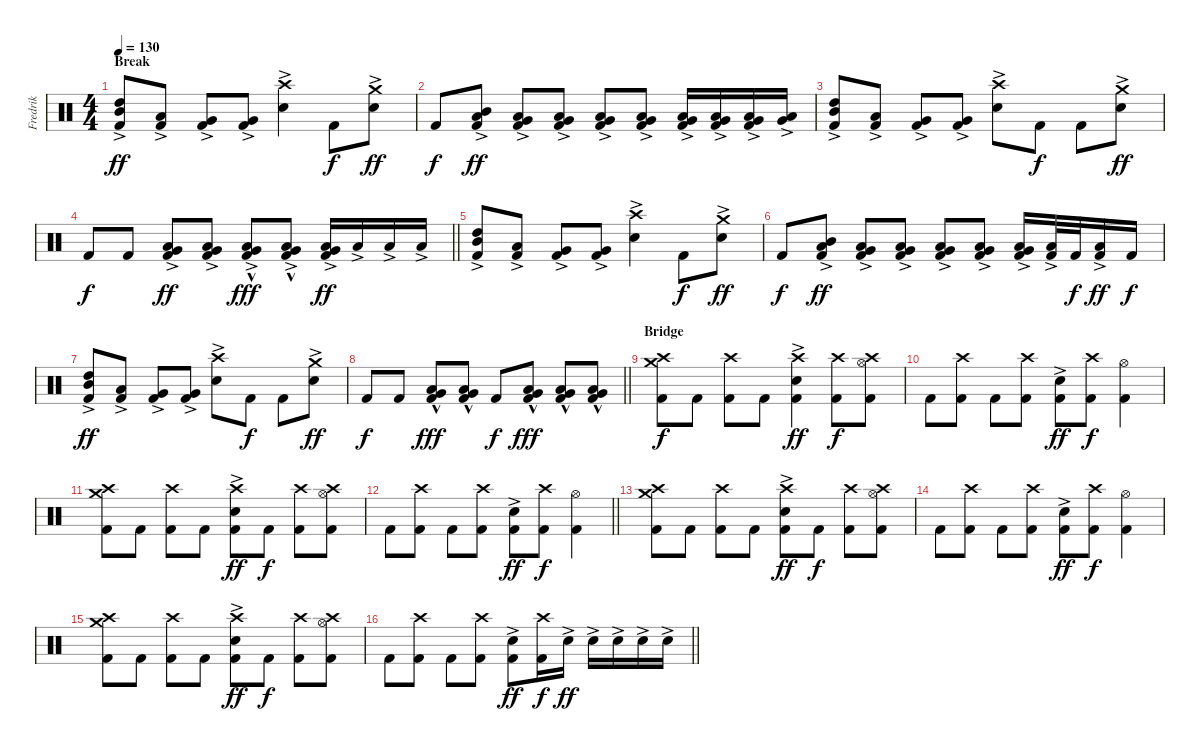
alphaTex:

\track ("Fredrik" "Fredrik") {instrument percussion}
\staff {score}
\articulation defaults
\ts (4 4)
\section ("" "Break")
\tempo 130
\clef neutral
\ks c
("Kick (hit) 2" "High Tom (hit)" "Mid Tom (hit)"{ac}).8{dy ff} ("Kick (hit) 2" "Low Tom (hit)"{ac}).8 ("Kick (hit) 2" "Very Low Tom (hit)"{ac}).8 ("Kick (hit) 2" "Very Low Tom (hit)"{ac}).8 ("Snare (hit) 2"{ac} "Crash high (hit)").4 "Kick (hit) 2".8{dy f} ("Snare (hit) 2"{ac} "Crash medium (hit)").8{dy ff} |
"Kick (hit) 2".8{dy f} ("Kick (hit) 2" "Mid Tom (hit)" "Low Tom (hit)"{ac}).8{dy ff} ("Kick (hit) 2" "Low Tom (hit)" "Very Low Tom (hit)"{ac}).8 ("Kick (hit) 2" "Very Low Tom (hit)" "Low Floor Tom (hit)"{ac}).8 ("Kick (hit) 2" "Very Low Tom (hit)" "Low Floor Tom (hit)"{ac}).8 ("Kick (hit) 2" "Very Low Tom (hit)" "Low Floor Tom (hit)"{ac}).8 ("Kick (hit) 2" "Very Low Tom (hit)" "Low Floor Tom (hit)"{ac}).16 ("Kick (hit) 2" "Very Low Tom (hit)" "Low Floor Tom (hit)"{ac}).16 ("Kick (hit) 2" "Very Low Tom (hit)" "Low Floor Tom (hit)"{ac}).16 ("Very Low Tom (hit)" "Low Floor Tom (hit)"{ac}).16 |
("Kick (hit) 2" "High Tom (hit)" "Mid Tom (hit)"{ac}).8 ("Kick (hit) 2" "Low Tom (hit)"{ac}).8 ("Kick (hit) 2" "Very Low Tom (hit)"{ac}).8 ("Kick (hit) 2" "Very Low Tom (hit)"{ac}).8 ("Snare (hit) 2"{ac} "Crash high (hit)").8 "Kick (hit) 2".8{dy f} "Kick (hit) 2".8 ("Snare (hit) 2"{ac} "Crash medium (hit)").8{dy ff} |
\barLineRight lightlight "Kick (hit) 2".8{dy f} "Kick (hit) 2".8
("Kick (hit) 2" "Low Tom (hit)" "Very Low Tom (hit)"{ac}).8{dy ff} ("Kick (hit) 2" "Very Low Tom (hit)" "Low Floor Tom (hit)"{ac}).8 ("Kick (hit) 2" "Very Low Tom (hit)"{ac} "Low Floor Tom (hit)"{hac}).8{dy fff} ("Kick (hit) 2" "Very Low Tom (hit)"{ac} "Low Floor Tom (hit)"{hac}).8 ("Kick (hit) 2" "Very Low Tom (hit)"{ac} "Low Floor Tom (hit)"{ac}).16{dy ff} "Low Floor Tom (hit)"{ac}.16 "Low Floor Tom (hit)"{ac}.16 "Low Floor Tom (hit)"{ac}.16 |
\section ("" "")
("Kick (hit) 2" "High Tom (hit)" "Mid Tom (hit)"{ac}).8 ("Kick (hit) 2" "Low Tom (hit)"{ac}).8 ("Kick (hit) 2" "Very Low Tom (hit)"{ac}).8 ("Kick (hit) 2" "Very Low Tom (hit)"{ac}).8 ("Snare (hit) 2"{ac} "Crash high (hit)").4 "Kick (hit) 2".8{dy f} ("Snare (hit) 2"{ac} "Crash medium (hit)").8{dy ff} |
"Kick (hit) 2".8{dy f} ("Kick (hit) 2" "Mid Tom (hit)" "Low Tom (hit)"{ac}).8{dy ff} ("Kick (hit) 2" "Low Tom (hit)" "Very Low Tom (hit)"{ac}).8 ("Kick (hit) 2" "Very Low Tom (hit)" "Low Floor Tom (hit)"{ac}).8 ("Kick (hit) 2" "Very Low Tom (hit)" "Low Floor Tom (hit)"{ac}).8 ("Kick (hit) 2" "Very Low Tom (hit)" "Low Floor Tom (hit)"{ac}).8 ("Kick (hit) 2" "Very Low Tom (hit)" "Low Floor Tom (hit)"{ac}).16 ("Kick (hit) 2" "Low Floor Tom (hit)"{ac}).32 "Kick (hit) 2".32{dy f} ("Kick (hit) 2" "Low Floor Tom (hit)"{ac}).16{dy ff} "Kick (hit) 2".16{dy f} |
("Kick (hit) 2" "High Tom (hit)" "Mid Tom (hit)"{ac}).8{dy ff} ("Kick (hit) 2" "Low Tom (hit)"{ac}).8 ("Kick (hit) 2" "Very Low Tom (hit)"{ac}).8 ("Kick (hit) 2" "Very Low Tom (hit)"{ac}).8 ("Snare (hit) 2"{ac} "Crash high (hit)").8 "Kick (hit) 2".8{dy f} "Kick (hit) 2".8 ("Snare (hit) 2"{ac} "Crash medium (hit)").8{dy ff} |
\barLineRight lightlight "Kick (hit) 2".8{dy f} "Kick (hit) 2".8
("Kick (hit) 2" "Low Tom (hit)"{hac} "Very Low Tom (hit)"{hac}).8{dy fff} ("Kick (hit) 2" "Low Tom (hit)"{hac} "Very Low Tom (hit)"{hac}).8 "Kick (hit) 2".8{dy f} ("Kick (hit) 2" "Very Low Tom (hit)"{hac} "Low Floor Tom (hit)"{hac}).8{dy fff} ("Kick (hit) 2" "Very Low Tom (hit)"{hac} "Low Floor Tom (hit)"{hac}).8 ("Kick (hit) 2" "Very Low Tom (hit)"{hac} "Low Floor Tom (hit)"{hac}).8 |
\section ("" "Bridge")
("Kick (hit) 2" "Crash medium (hit)" "Crash high (hit)").8{dy f} "Kick (hit) 2".8 ("Kick (hit) 2" "Crash high (hit)").8 "Kick (hit) 2".8 ("Kick (hit) 2" "Snare (hit) 2"{ac} "Crash high (hit)").4{dy ff} ("Kick (hit) 2" "Crash high (hit)").8{dy f} ("Kick (hit) 2" "Hi-Hat (open)" "Crash high (hit)").8 |
"Kick (hit) 2".8 ("Kick (hit) 2" "Crash high (hit)").8 "Kick (hit) 2".8 ("Kick (hit) 2" "Crash high (hit)").8 ("Kick (hit) 2" "Snare (hit) 2"{ac}).8{dy ff} ("Kick (hit) 2" "Crash high (hit)").8{dy f} ("Kick (hit) 2" "Hi-Hat (open)").4 |
("Kick (hit) 2" "Crash medium (hit)" "Crash high (hit)").8 "Kick (hit) 2".8 ("Kick (hit) 2" "Crash high (hit)").8 "Kick (hit) 2".8 ("Kick (hit) 2" "Snare (hit) 2"{ac} "Crash high (hit)").8{dy ff} "Kick (hit) 2".8{dy f} ("Kick (hit) 2" "Crash high (hit)").8 ("Kick (hit) 2" "Hi-Hat (open)" "Crash high (hit)").8 |
\barLineRight lightlight "Kick (hit) 2".8
("Kick (hit) 2" "Crash high (hit)").8 "Kick (hit) 2".8 ("Kick (hit) 2" "Crash high (hit)").8 ("Kick (hit) 2" "Snare (hit) 2"{ac}).8{dy ff} ("Kick (hit) 2" "Crash high (hit)").8{dy f} ("Kick (hit) 2" "Hi-Hat (open)").4 |
\section ("" "")
("Kick (hit) 2" "Crash medium (hit)" "Crash high (hit)").8 "Kick (hit) 2".8 ("Kick (hit) 2" "Crash high (hit)").8 "Kick (hit) 2".8 ("Kick (hit) 2" "Snare (hit) 2"{ac} "Crash high (hit)").8{dy ff} "Kick (hit) 2".8{dy f} ("Kick (hit) 2" "Crash high (hit)").8 ("Kick (hit) 2" "Hi-Hat (open)" "Crash high (hit)").8 |
"Kick (hit) 2".8 ("Kick (hit) 2" "Crash high (hit)").8 "Kick (hit) 2".8 ("Kick (hit) 2" "Crash high (hit)").8 ("Kick (hit) 2" "Snare (hit) 2"{ac}).8{dy ff} ("Kick (hit) 2" "Crash high (hit)").8{dy f} ("Kick (hit) 2" "Hi-Hat (open)").4 |
("Kick (hit) 2" "Crash medium (hit)" "Crash high (hit)").8 "Kick (hit) 2".8 ("Kick (hit) 2" "Crash high (hit)").8 "Kick (hit) 2".8 ("Kick (hit) 2" "Snare (hit) 2"{ac} "Crash high (hit)").8{dy ff} "Kick (hit) 2".8{dy f} ("Kick (hit) 2" "Crash high (hit)").8 ("Kick (hit) 2" "Hi-Hat (open)" "Crash high (hit)").8 |
\barLineRight lightlight "Kick (hit) 2".8
("Kick (hit) 2" "Crash high (hit)").8 "Kick (hit) 2".8 ("Kick (hit) 2" "Crash high (hit)").8 ("Kick (hit) 2" "Snare (hit) 2"{ac}).8{dy ff} ("Kick (hit) 2" "Crash high (hit)").16{dy f} "Snare (hit) 2"{ac}.16{dy ff} "Snare (hit) 2"{ac}.16 "Snare (hit) 2"{ac}.16 "Snare (hit) 2"{ac}.16 "Snare (hit) 2"{ac}.16
